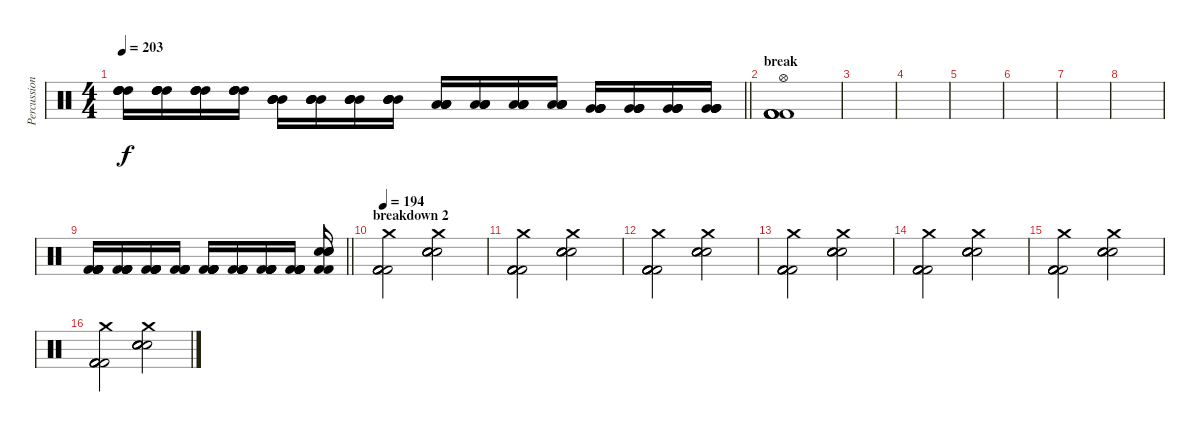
\track ("Percussion" "Percussion") {instrument percussion}
\staff {score}
\articulation defaults
\ts (4 4)
\tempo 203
\clef neutral
\barLineRight lightlight
\ks c
("High Tom (hit)" "High Tom (hit)" "High Tom (hit)" "High Tom (hit)").16{dy f} ("High Tom (hit)" "High Tom (hit)" "High Tom (hit)" "High Tom (hit)").16 ("High Tom (hit)" "High Tom (hit)" "High Tom (hit)" "High Tom (hit)").16 ("High Tom (hit)" "High Tom (hit)" "High Tom (hit)" "High Tom (hit)").16 ("Mid Tom (hit)" "Mid Tom (hit)" "Mid Tom (hit)" "Mid Tom (hit)").16 ("Mid Tom (hit)" "Mid Tom (hit)" "Mid Tom (hit)" "Mid Tom (hit)").16 ("Mid Tom (hit)" "Mid Tom (hit)" "Mid Tom (hit)" "Mid Tom (hit)").16 ("Mid Tom (hit)" "Mid Tom (hit)" "Mid Tom (hit)" "Mid Tom (hit)").16 ("Low Tom (hit)" "Low Tom (hit)" "Low Tom (hit)" "Low Tom (hit)").16 ("Low Tom (hit)" "Low Tom (hit)" "Low Tom (hit)" "Low Tom (hit)").16 ("Low Tom (hit)" "Low Tom (hit)" "Low Tom (hit)" "Low Tom (hit)").16 ("Low Tom (hit)" "Low Tom (hit)" "Low Tom (hit)" "Low Tom (hit)").16 ("Very Low Tom (hit)" "Very Low Tom (hit)" "Very Low Tom (hit)" "Very Low Tom (hit)").16 ("Very Low Tom (hit)" "Very Low Tom (hit)" "Very Low Tom (hit)" "Very Low Tom (hit)").16 ("Very Low Tom (hit)" "Very Low Tom (hit)" "Very Low Tom (hit)" "Very Low Tom (hit)").16 ("Very Low Tom (hit)" "Very Low Tom (hit)" "Very Low Tom (hit)" "Very Low Tom (hit)").16 |
\section ("" "break")
("Kick (hit) 2" "Kick (hit) 2" "Kick (hit) 2" "Kick (hit) 2" "Kick (hit) 2" "Hi-Hat (open)").1 |
|
|
|
|
|
|
\barLineRight lightlight
("Kick (hit) 2" "Kick (hit) 2" "Kick (hit) 2" "Kick (hit) 2" "Kick (hit) 2").16 ("Kick (hit) 2" "Kick (hit) 2" "Kick (hit) 2" "Kick (hit) 2" "Kick (hit) 2").16 ("Kick (hit) 2" "Kick (hit) 2" "Kick (hit) 2" "Kick (hit) 2" "Kick (hit) 2").16 ("Kick (hit) 2" "Kick (hit) 2" "Kick (hit) 2" "Kick (hit) 2" "Kick (hit) 2").16 ("Kick (hit) 2" "Kick (hit) 2" "Kick (hit) 2" "Kick (hit) 2" "Kick (hit) 2").16 ("Kick (hit) 2" "Kick (hit) 2" "Kick (hit) 2" "Kick (hit) 2" "Kick (hit) 2").16 ("Kick (hit) 2" "Kick (hit) 2" "Kick (hit) 2" "Kick (hit) 2" "Kick (hit) 2").16 ("Kick (hit) 2" "Kick (hit) 2" "Kick (hit) 2" "Kick (hit) 2" "Kick (hit) 2").16 ("Kick (hit) 2" "Kick (hit) 2" "Electric Snare (hit)" "Electric Snare (hit)" "Electric Snare (hit)").16 |
\section ("" "breakdown 2")
\tempo 193
\tempo 194
("Kick (hit) 2" "Kick (hit) 2" "Kick (hit) 2" "Kick (hit) 2" "Kick (hit) 2" "Crash medium (hit)").2 ("Electric Snare (hit)" "Electric Snare (hit)" "Electric Snare (hit)" "Electric Snare (hit)" "Electric Snare (hit)" "Crash medium (hit)").2 |
("Kick (hit) 2" "Kick (hit) 2" "Kick (hit) 2" "Kick (hit) 2" "Kick (hit) 2" "Crash medium (hit)").2 ("Electric Snare (hit)" "Electric Snare (hit)" "Electric Snare (hit)" "Electric Snare (hit)" "Electric Snare (hit)" "Crash medium (hit)").2 |
("Kick (hit) 2" "Kick (hit) 2" "Kick (hit) 2" "Kick (hit) 2" "Kick (hit) 2" "Crash medium (hit)").2 ("Electric Snare (hit)" "Electric Snare (hit)" "Electric Snare (hit)" "Electric Snare (hit)" "Electric Snare (hit)" "Crash medium (hit)").2 |
("Kick (hit) 2" "Kick (hit) 2" "Kick (hit) 2" "Kick (hit) 2" "Kick (hit) 2" "Crash medium (hit)").2 ("Electric Snare (hit)" "Electric Snare (hit)" "Electric Snare (hit)" "Electric Snare (hit)" "Electric Snare (hit)" "Crash medium (hit)").2 |
("Kick (hit) 2" "Kick (hit) 2" "Kick (hit) 2" "Kick (hit) 2" "Kick (hit) 2" "Crash medium (hit)").2 ("Electric Snare (hit)" "Electric Snare (hit)" "Electric Snare (hit)" "Electric Snare (hit)" "Electric Snare (hit)" "Crash medium (hit)").2 |
("Kick (hit) 2" "Kick (hit) 2" "Kick (hit) 2" "Kick (hit) 2" "Kick (hit) 2" "Crash medium (hit)").2 ("Electric Snare (hit)" "Electric Snare (hit)" "Electric Snare (hit)" "Electric Snare (hit)" "Electric Snare (hit)" "Crash medium (hit)").2 |
("Kick (hit) 2" "Kick (hit) 2" "Kick (hit) 2" "Kick (hit) 2" "Kick (hit) 2" "Crash medium (hit)").2 ("Electric Snare (hit)" "Electric Snare (hit)" "Electric Snare (hit)" "Electric Snare (hit)" "Electric Snare (hit)" "Crash medium (hit)").2
